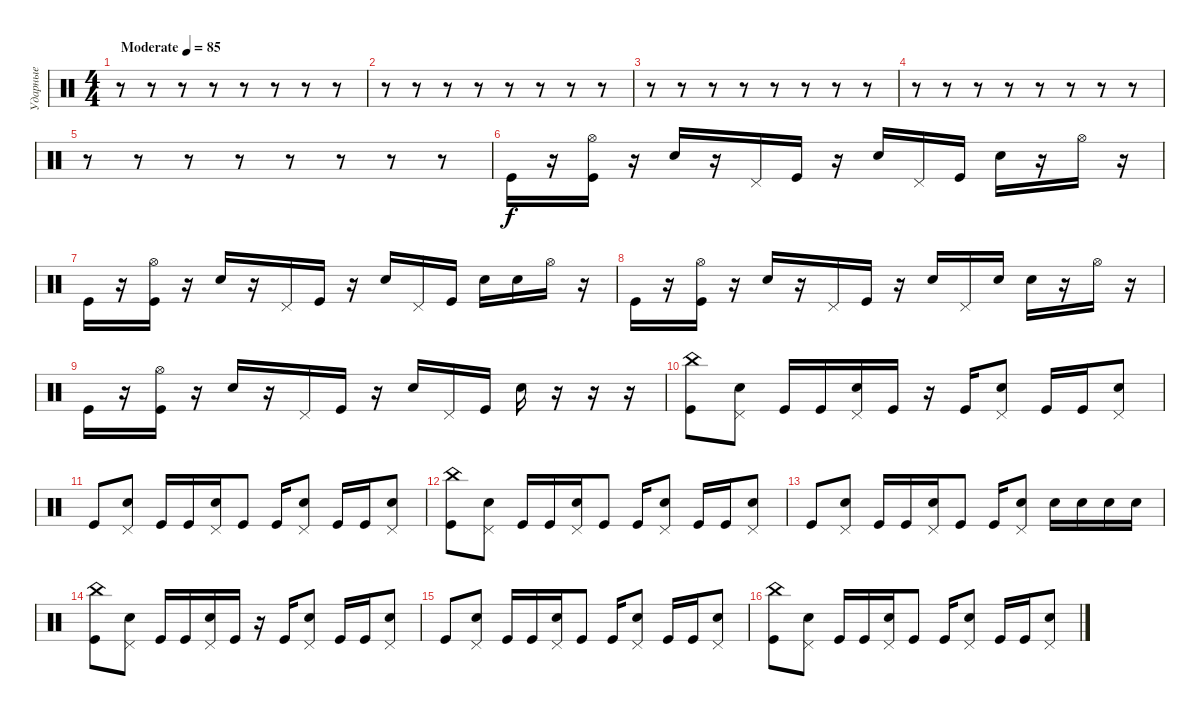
\track ("Ударные" "Ударные") {instrument percussion}
\staff {score}
\articulation defaults
\ts (4 4)
\tempo (85 "Moderate")
\clef neutral
\ks c
r.8{dy f} r.8 r.8 r.8 r.8 r.8 r.8 r.8 |
r.8 r.8 r.8 r.8 r.8 r.8 r.8 r.8 |
r.8 r.8 r.8 r.8 r.8 r.8 r.8 r.8 |
r.8 r.8 r.8 r.8 r.8 r.8 r.8 r.8 |
r.8 r.8 r.8 r.8 r.8 r.8 r.8 r.8 |
"Kick (hit)".16 r.16 ("Hi-Hat (open)" "Kick (hit)").16 r.16 "Electric Snare (hit)".16 r.16 "Pedal Hi-Hat (hit)".16 "Kick (hit)".16 r.16 "Electric Snare (hit)".16 "Pedal Hi-Hat (hit)".16 "Kick (hit)".16 "Electric Snare (hit)".16 r.16 "Hi-Hat (open)".16 r.16 |
"Kick (hit)".16 r.16 ("Hi-Hat (open)" "Kick (hit)").16 r.16 "Electric Snare (hit)".16 r.16 "Pedal Hi-Hat (hit)".16 "Kick (hit)".16 r.16 "Electric Snare (hit)".16 "Pedal Hi-Hat (hit)".16 "Kick (hit)".16 "Electric Snare (hit)".16 "Electric Snare (hit)".16 "Hi-Hat (open)".16 r.16 |
"Kick (hit)".16 r.16 ("Hi-Hat (open)" "Kick (hit)").16 r.16 "Electric Snare (hit)".16 r.16 "Pedal Hi-Hat (hit)".16 "Kick (hit)".16 r.16 "Electric Snare (hit)".16 "Pedal Hi-Hat (hit)".16 "Electric Snare (hit)".16 "Electric Snare (hit)".16 r.16 "Hi-Hat (open)".16 r.16 |
"Kick (hit)".16 r.16 ("Hi-Hat (open)" "Kick (hit)").16 r.16 "Electric Snare (hit)".16 r.16 "Pedal Hi-Hat (hit)".16 "Kick (hit)".16 r.16 "Electric Snare (hit)".16 "Pedal Hi-Hat (hit)".16 "Kick (hit)".16 "Electric Snare (hit)".16 r.16 r.16 r.16 |
("China (hit)" "Kick (hit)").8 ("Pedal Hi-Hat (hit)" "Electric Snare (hit)").8 "Kick (hit)".16 "Kick (hit)".16 ("Pedal Hi-Hat (hit)" "Electric Snare (hit)").16 "Kick (hit)".16 r.16 "Kick (hit)".16 ("Pedal Hi-Hat (hit)" "Electric Snare (hit)").8 "Kick (hit)".16 "Kick (hit)".16 ("Pedal Hi-Hat (hit)" "Electric Snare (hit)").8 |
"Kick (hit)".8 ("Pedal Hi-Hat (hit)" "Electric Snare (hit)").8 "Kick (hit)".16 "Kick (hit)".16 ("Pedal Hi-Hat (hit)" "Electric Snare (hit)").16 "Kick (hit)".8 "Kick (hit)".16 ("Pedal Hi-Hat (hit)" "Electric Snare (hit)").8 "Kick (hit)".16 "Kick (hit)".16 ("Pedal Hi-Hat (hit)" "Electric Snare (hit)").8 |
("China (hit)" "Kick (hit)").8 ("Pedal Hi-Hat (hit)" "Electric Snare (hit)").8 "Kick (hit)".16 "Kick (hit)".16 ("Pedal Hi-Hat (hit)" "Electric Snare (hit)").16 "Kick (hit)".8 "Kick (hit)".16 ("Pedal Hi-Hat (hit)" "Electric Snare (hit)").8 "Kick (hit)".16 "Kick (hit)".16 ("Pedal Hi-Hat (hit)" "Electric Snare (hit)").8 |
"Kick (hit)".8 ("Pedal Hi-Hat (hit)" "Electric Snare (hit)").8 "Kick (hit)".16 "Kick (hit)".16 ("Pedal Hi-Hat (hit)" "Electric Snare (hit)").16 "Kick (hit)".8 "Kick (hit)".16 ("Pedal Hi-Hat (hit)" "Electric Snare (hit)").8 "Electric Snare (hit)".16 "Electric Snare (hit)".16 "Electric Snare (hit)".16 "Electric Snare (hit)".16 |
("China (hit)" "Kick (hit)").8 ("Pedal Hi-Hat (hit)" "Electric Snare (hit)").8 "Kick (hit)".16 "Kick (hit)".16 ("Pedal Hi-Hat (hit)" "Electric Snare (hit)").16 "Kick (hit)".16 r.16 "Kick (hit)".16 ("Pedal Hi-Hat (hit)" "Electric Snare (hit)").8 "Kick (hit)".16 "Kick (hit)".16 ("Pedal Hi-Hat (hit)" "Electric Snare (hit)").8 |
"Kick (hit)".8 ("Pedal Hi-Hat (hit)" "Electric Snare (hit)").8 "Kick (hit)".16 "Kick (hit)".16 ("Pedal Hi-Hat (hit)" "Electric Snare (hit)").16 "Kick (hit)".8 "Kick (hit)".16 ("Pedal Hi-Hat (hit)" "Electric Snare (hit)").8 "Kick (hit)".16 "Kick (hit)".16 ("Pedal Hi-Hat (hit)" "Electric Snare (hit)").8 |
("China (hit)" "Kick (hit)").8 ("Pedal Hi-Hat (hit)" "Electric Snare (hit)").8 "Kick (hit)".16 "Kick (hit)".16 ("Pedal Hi-Hat (hit)" "Electric Snare (hit)").16 "Kick (hit)".8 "Kick (hit)".16 ("Pedal Hi-Hat (hit)" "Electric Snare (hit)").8 "Kick (hit)".16 "Kick (hit)".16 ("Pedal Hi-Hat (hit)" "Electric Snare (hit)").8
